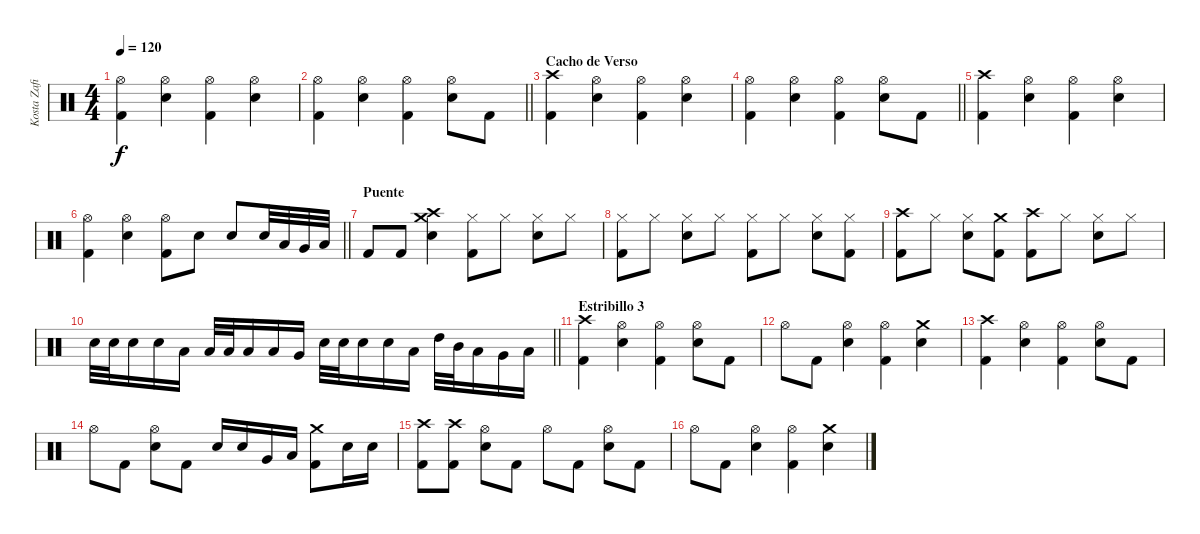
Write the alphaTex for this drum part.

\track ("Kosta Zafiriou" "Kosta Zafi") {instrument percussion}
\staff {score}
\articulation defaults
\ts (4 4)
\tempo 120
\clef neutral
\ks c
("Hi-Hat (open)" "Kick (hit) 2").4{dy f} ("Hi-Hat (open)" "Electric Snare (hit)").4 ("Hi-Hat (open)" "Kick (hit) 2").4 ("Hi-Hat (open)" "Electric Snare (hit)").4 |
\barLineRight lightlight
("Hi-Hat (open)" "Kick (hit) 2").4 ("Hi-Hat (open)" "Electric Snare (hit)").4 ("Hi-Hat (open)" "Kick (hit) 2").4 ("Hi-Hat (open)" "Electric Snare (hit)").8 "Kick (hit) 2".8 |
\section ("" "Cacho de Verso")
("Crash high (hit)" "Kick (hit) 2").4 ("Hi-Hat (open)" "Electric Snare (hit)").4 ("Hi-Hat (open)" "Kick (hit) 2").4 ("Hi-Hat (open)" "Electric Snare (hit)").4 |
\barLineRight lightlight
("Hi-Hat (open)" "Kick (hit) 2").4 ("Hi-Hat (open)" "Electric Snare (hit)").4 ("Hi-Hat (open)" "Kick (hit) 2").4 ("Hi-Hat (open)" "Electric Snare (hit)").8 "Kick (hit) 2".8 |
("Crash high (hit)" "Kick (hit) 2").4 ("Hi-Hat (open)" "Electric Snare (hit)").4 ("Hi-Hat (open)" "Kick (hit) 2").4 ("Hi-Hat (open)" "Electric Snare (hit)").4 |
\barLineRight lightlight
("Hi-Hat (open)" "Kick (hit) 2").4 ("Hi-Hat (open)" "Electric Snare (hit)").4 ("Hi-Hat (open)" "Kick (hit) 2").8 "Electric Snare (hit)".8 "Electric Snare (hit)".8 "Electric Snare (hit)".32 "Low Tom (hit)".32 "Very Low Tom (hit)".32 "Low Floor Tom (hit)".32 |
\section ("" "Puente")
"Kick (hit) 2".8 "Kick (hit) 2".8 ("Crash medium (hit)" "Crash high (hit)" "Electric Snare (hit)").4 ("Hi-Hat (closed)" "Kick (hit) 2").8 "Hi-Hat (closed)".8 ("Hi-Hat (closed)" "Electric Snare (hit)").8 "Hi-Hat (closed)".8 |
("Hi-Hat (closed)" "Kick (hit) 2").8 "Hi-Hat (closed)".8 ("Hi-Hat (closed)" "Electric Snare (hit)").8 "Hi-Hat (closed)".8 ("Hi-Hat (closed)" "Kick (hit) 2").8 "Hi-Hat (closed)".8 ("Hi-Hat (closed)" "Electric Snare (hit)").8 ("Hi-Hat (closed)" "Kick (hit) 2").8 |
("Crash high (hit)" "Kick (hit) 2").8 "Hi-Hat (closed)".8 ("Hi-Hat (closed)" "Electric Snare (hit)").8 ("Crash medium (hit)" "Kick (hit) 2").8 ("Crash high (hit)" "Kick (hit) 2").8 "Hi-Hat (closed)".8 ("Hi-Hat (closed)" "Electric Snare (hit)").8 "Hi-Hat (closed)".8 |
\barLineRight lightlight "Electric Snare (hit)".32 "Electric Snare (hit)".32 "Electric Snare (hit)".16 "Electric Snare (hit)".16 "Low Tom (hit)".16 "Low Tom (hit)".32 "Low Tom (hit)".32 "Low Tom (hit)".16 "Low Tom (hit)".16 "Very Low Tom (hit)".16 "Electric Snare (hit)".32 "Electric Snare (hit)".32 "Electric Snare (hit)".16 "Electric Snare (hit)".16 "Low Tom (hit)".16 "High Tom (hit)".32 "Mid Tom (hit)".32 "Low Tom (hit)".16 "Very Low Tom (hit)".16 "Low Floor Tom (hit)".16
|
\section ("" "Estribillo 3")
("Crash high (hit)" "Kick (hit) 2").4 ("Hi-Hat (open)" "Electric Snare (hit)").4 ("Hi-Hat (open)" "Kick (hit) 2").4 ("Hi-Hat (open)" "Electric Snare (hit)").8 "Kick (hit) 2".8 |
"Hi-Hat (open)".8 "Kick (hit) 2".8 ("Hi-Hat (open)" "Electric Snare (hit)").4 ("Hi-Hat (open)" "Kick (hit) 2").4 ("Crash medium (hit)" "Electric Snare (hit)").4 |
("Crash high (hit)" "Kick (hit) 2").4 ("Hi-Hat (open)" "Electric Snare (hit)").4 ("Hi-Hat (open)" "Kick (hit) 2").4 ("Hi-Hat (open)" "Electric Snare (hit)").8 "Kick (hit) 2".8 |
"Hi-Hat (open)".8 "Kick (hit) 2".8 ("Hi-Hat (open)" "Electric Snare (hit)").8 "Kick (hit) 2".8 "Electric Snare (hit)".16 "Electric Snare (hit)".16 "Very Low Tom (hit)".16 "Low Floor Tom (hit)".16 ("Crash medium (hit)" "Kick (hit) 2").8 "Electric Snare (hit)".16 "Electric Snare (hit)".16 |
("Crash high (hit)" "Kick (hit) 2").8 ("Crash high (hit)" "Kick (hit) 2").8 ("Hi-Hat (open)" "Electric Snare (hit)").8 "Kick (hit) 2".8 "Hi-Hat (open)".8 "Kick (hit) 2".8 ("Hi-Hat (open)" "Electric Snare (hit)").8 "Kick (hit) 2".8 |
"Hi-Hat (open)".8 "Kick (hit) 2".8 ("Hi-Hat (open)" "Electric Snare (hit)").4 ("Hi-Hat (open)" "Kick (hit) 2").4 ("Crash medium (hit)" "Electric Snare (hit)").4
